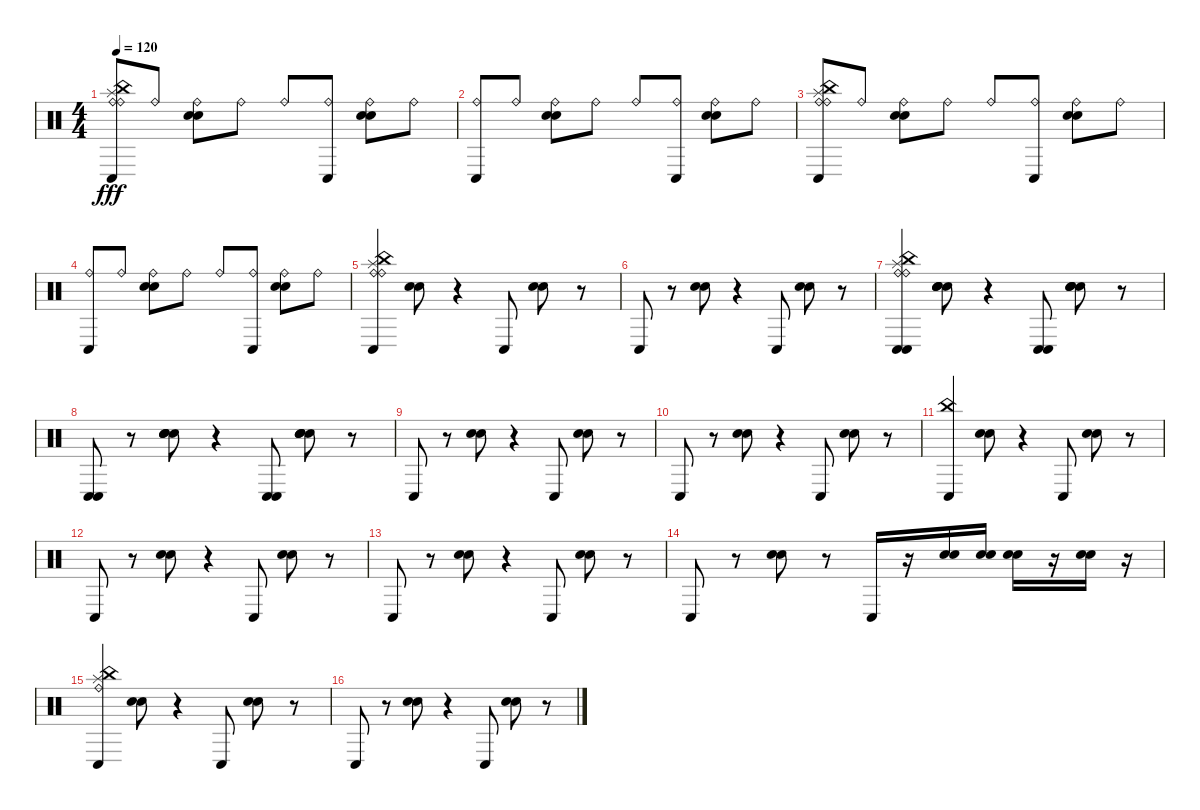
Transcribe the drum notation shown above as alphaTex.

\track "" {instrument percussion}
\staff {score}
\articulation defaults
\ts (4 4)
\tempo 120
\clef neutral
\ks c
("Conga low (hit)" "Splash (hit)" "Ride (bell)" "China (hit)" "Ride (bell)").8{dy fff} "Ride (bell)".8 ("Electric Snare (hit)" "Snare (hit) 2" "Ride (bell)").8 "Ride (bell)".8 "Ride (bell)".8 ("Conga low (hit)" "Ride (bell)").8 ("Electric Snare (hit)" "Snare (hit) 2" "Ride (bell)").8 "Ride (bell)".8 |
("Conga low (hit)" "Ride (bell)").8 "Ride (bell)".8 ("Electric Snare (hit)" "Snare (hit) 2" "Ride (bell)").8 "Ride (bell)".8 "Ride (bell)".8 ("Conga low (hit)" "Ride (bell)").8 ("Electric Snare (hit)" "Snare (hit) 2" "Ride (bell)").8 "Ride (bell)".8 |
("Conga low (hit)" "Splash (hit)" "Ride (bell)" "China (hit)" "Ride (bell)").8 "Ride (bell)".8 ("Electric Snare (hit)" "Snare (hit) 2" "Ride (bell)").8 "Ride (bell)".8 "Ride (bell)".8 ("Conga low (hit)" "Ride (bell)").8 ("Electric Snare (hit)" "Snare (hit) 2" "Ride (bell)").8 "Ride (bell)".8 |
("Conga low (hit)" "Ride (bell)").8 "Ride (bell)".8 ("Electric Snare (hit)" "Snare (hit) 2" "Ride (bell)").8 "Ride (bell)".8 "Ride (bell)".8 ("Conga low (hit)" "Ride (bell)").8 ("Electric Snare (hit)" "Snare (hit) 2" "Ride (bell)").8 "Ride (bell)".8 |
("Conga low (hit)" "Splash (hit)" "Ride (bell)" "China (hit)" "Ride (bell)").4 ("Electric Snare (hit)" "Snare (hit) 2").8 r.4 "Conga low (hit)".8 ("Electric Snare (hit)" "Snare (hit) 2").8 r.8 |
"Conga low (hit)".8 r.8 ("Electric Snare (hit)" "Snare (hit) 2").8 r.4 "Conga low (hit)".8 ("Electric Snare (hit)" "Snare (hit) 2").8 r.8 |
("Conga low (hit)" "Splash (hit)" "Ride (bell)" "China (hit)" "Ride (bell)" "Conga low (hit)").4 ("Electric Snare (hit)" "Snare (hit) 2" "Snare (hit) 2" "Electric Snare (hit)").8 r.4 ("Conga low (hit)" "Conga low (hit)").8 ("Electric Snare (hit)" "Snare (hit) 2" "Electric Snare (hit)" "Snare (hit) 2").8 r.8 |
("Conga low (hit)" "Conga low (hit)").8 r.8 ("Electric Snare (hit)" "Snare (hit) 2" "Electric Snare (hit)" "Snare (hit) 2").8 r.4 ("Conga low (hit)" "Conga low (hit)").8 ("Electric Snare (hit)" "Snare (hit) 2" "Electric Snare (hit)" "Snare (hit) 2").8 r.8 |
"Conga low (hit)".8 r.8 ("Electric Snare (hit)" "Snare (hit) 2").8 r.4 "Conga low (hit)".8 ("Electric Snare (hit)" "Snare (hit) 2").8 r.8 |
"Conga low (hit)".8 r.8 ("Electric Snare (hit)" "Snare (hit) 2").8 r.4 "Conga low (hit)".8 ("Electric Snare (hit)" "Snare (hit) 2").8 r.8 |
("Conga low (hit)" "China (hit)").4 ("Snare (hit) 2" "Electric Snare (hit)").8 r.4 "Conga low (hit)".8 ("Electric Snare (hit)" "Snare (hit) 2").8 r.8 |
"Conga low (hit)".8 r.8 ("Electric Snare (hit)" "Snare (hit) 2").8 r.4 "Conga low (hit)".8 ("Electric Snare (hit)" "Snare (hit) 2").8 r.8 |
"Conga low (hit)".8 r.8 ("Electric Snare (hit)" "Snare (hit) 2").8 r.4 "Conga low (hit)".8 ("Electric Snare (hit)" "Snare (hit) 2").8 r.8 |
"Conga low (hit)".8 r.8 ("Electric Snare (hit)" "Snare (hit) 2").8 r.8 "Conga low (hit)".16 r.16 ("Electric Snare (hit)" "Snare (hit) 2").16 ("Electric Snare (hit)" "Snare (hit) 2").16 ("Electric Snare (hit)" "Snare (hit) 2").16 r.16 ("Electric Snare (hit)" "Snare (hit) 2").16 r.16 |
("Conga low (hit)" "Splash (hit)" "Ride (bell)" "China (hit)").4 ("Electric Snare (hit)" "Snare (hit) 2").8 r.4 "Conga low (hit)".8 ("Electric Snare (hit)" "Snare (hit) 2").8 r.8 |
"Conga low (hit)".8 r.8 ("Electric Snare (hit)" "Snare (hit) 2").8 r.4 "Conga low (hit)".8 ("Electric Snare (hit)" "Snare (hit) 2").8 r.8
